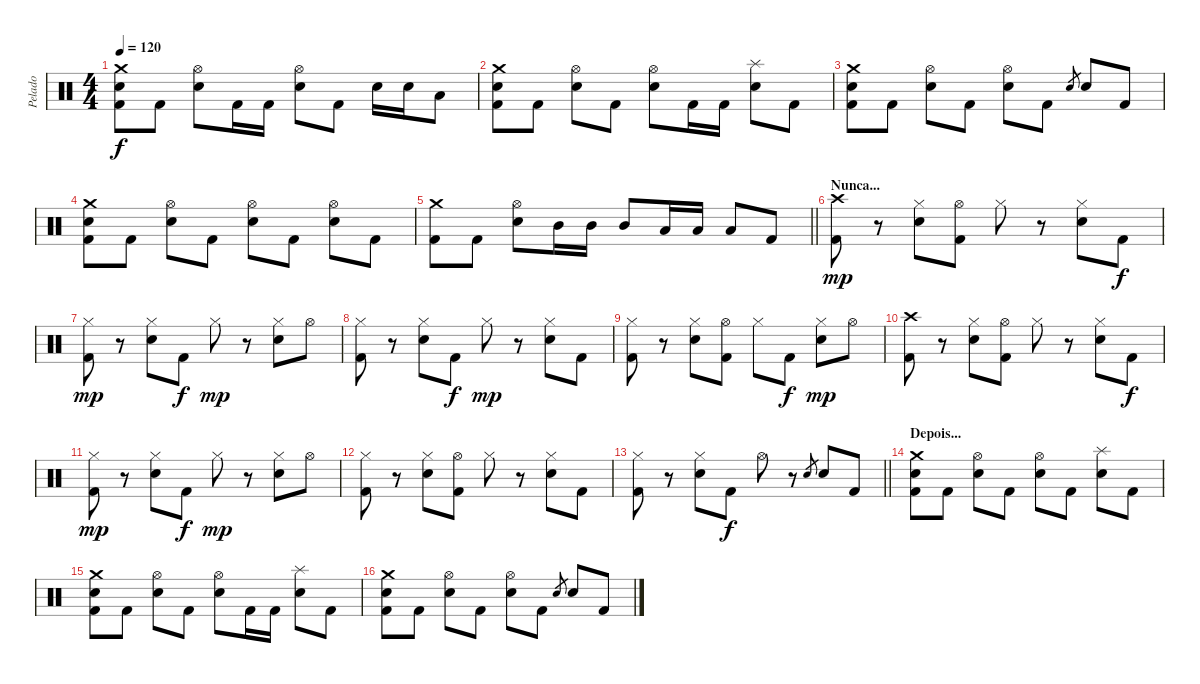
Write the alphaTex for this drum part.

\track ("Pelado" "Pelado") {instrument percussion}
\staff {score}
\articulation defaults
\ts (4 4)
\tempo 120
\clef neutral
\ks c
("Crash medium (hit)" "Electric Snare (hit)" "Kick (hit) 2").8{dy f} "Kick (hit) 2".8 ("Hi-Hat (open)" "Electric Snare (hit)").8 "Kick (hit) 2".16 "Kick (hit) 2".16 ("Hi-Hat (open)" "Electric Snare (hit)").8 "Kick (hit) 2".8 "Electric Snare (hit)".16 "Electric Snare (hit)".16 "Low Tom (hit)".8 |
("Crash medium (hit)" "Electric Snare (hit)" "Kick (hit) 2").8 "Kick (hit) 2".8 ("Hi-Hat (open)" "Electric Snare (hit)").8 "Kick (hit) 2".8 ("Hi-Hat (open)" "Electric Snare (hit)").8 "Kick (hit) 2".16 "Kick (hit) 2".16 ("Splash (hit)" "Electric Snare (hit)").8 "Kick (hit) 2".8 |
("Crash medium (hit)" "Electric Snare (hit)" "Kick (hit) 2").8 "Kick (hit) 2".8 ("Hi-Hat (open)" "Electric Snare (hit)").8 "Kick (hit) 2".8 ("Hi-Hat (open)" "Electric Snare (hit)").8 "Kick (hit) 2".8 "Electric Snare (hit)".8{gr} "Electric Snare (hit)".8 "Kick (hit) 2".8 |
("Crash medium (hit)" "Electric Snare (hit)" "Kick (hit) 2").8 "Kick (hit) 2".8 ("Hi-Hat (open)" "Electric Snare (hit)").8 "Kick (hit) 2".8 ("Hi-Hat (open)" "Electric Snare (hit)").8 "Kick (hit) 2".8 ("Hi-Hat (open)" "Electric Snare (hit)").8 "Kick (hit) 2".8 |
\barLineRight lightlight
("Crash medium (hit)" "Kick (hit) 2").8 "Kick (hit) 2".8 ("Hi-Hat (open)" "Electric Snare (hit)").8 "Mid Tom (hit)".16 "Mid Tom (hit)".16 "Mid Tom (hit)".8 "Low Tom (hit)".16 "Low Tom (hit)".16 "Low Tom (hit)".8 "Kick (hit) 2".8 |
\section ("" "Nunca...")
("Crash high (hit)" "Kick (hit) 2").8{dy mp} r.8 ("Hi-Hat (closed)" "Electric Snare (hit)").8 ("Hi-Hat (open)" "Kick (hit) 2").8 "Hi-Hat (closed)".8 r.8 ("Hi-Hat (closed)" "Electric Snare (hit)").8 "Kick (hit) 2".8{dy f} |
("Hi-Hat (closed)" "Kick (hit) 2").8{dy mp} r.8 ("Hi-Hat (closed)" "Electric Snare (hit)").8 "Kick (hit) 2".8{dy f} "Hi-Hat (closed)".8{dy mp} r.8 ("Hi-Hat (closed)" "Electric Snare (hit)").8 "Hi-Hat (open)".8 |
("Hi-Hat (closed)" "Kick (hit) 2").8 r.8 ("Hi-Hat (closed)" "Electric Snare (hit)").8 "Kick (hit) 2".8{dy f} "Hi-Hat (closed)".8{dy mp} r.8 ("Hi-Hat (closed)" "Electric Snare (hit)").8 "Kick (hit) 2".8 |
("Hi-Hat (closed)" "Kick (hit) 2").8 r.8 ("Hi-Hat (closed)" "Electric Snare (hit)").8 ("Hi-Hat (open)" "Kick (hit) 2").8 "Hi-Hat (closed)".8 "Kick (hit) 2".8{dy f} ("Hi-Hat (closed)" "Electric Snare (hit)").8{dy mp} "Hi-Hat (open)".8 |
("Crash high (hit)" "Kick (hit) 2").8 r.8 ("Hi-Hat (closed)" "Electric Snare (hit)").8 ("Hi-Hat (open)" "Kick (hit) 2").8 "Hi-Hat (closed)".8 r.8 ("Hi-Hat (closed)" "Electric Snare (hit)").8 "Kick (hit) 2".8{dy f} |
("Hi-Hat (closed)" "Kick (hit) 2").8{dy mp} r.8 ("Hi-Hat (closed)" "Electric Snare (hit)").8 "Kick (hit) 2".8{dy f} "Hi-Hat (closed)".8{dy mp} r.8 ("Hi-Hat (closed)" "Electric Snare (hit)").8 "Hi-Hat (open)".8 |
("Hi-Hat (closed)" "Kick (hit) 2").8 r.8 ("Hi-Hat (closed)" "Electric Snare (hit)").8 ("Hi-Hat (open)" "Kick (hit) 2").8 "Hi-Hat (closed)".8 r.8 ("Hi-Hat (closed)" "Electric Snare (hit)").8 "Kick (hit) 2".8 |
\barLineRight lightlight
("Hi-Hat (closed)" "Kick (hit) 2").8 r.8 ("Hi-Hat (closed)" "Electric Snare (hit)").8 "Kick (hit) 2".8{dy f} "Hi-Hat (open)".8 r.8 "Electric Snare (hit)".8{gr} "Electric Snare (hit)".8 "Kick (hit) 2".8 |
\section ("" "Depois...")
("Crash medium (hit)" "Electric Snare (hit)" "Kick (hit) 2").8 "Kick (hit) 2".8 ("Hi-Hat (open)" "Electric Snare (hit)").8 "Kick (hit) 2".8 ("Hi-Hat (open)" "Electric Snare (hit)").8 "Kick (hit) 2".8 ("Splash (hit)" "Electric Snare (hit)").8 "Kick (hit) 2".8 |
("Crash medium (hit)" "Electric Snare (hit)" "Kick (hit) 2").8 "Kick (hit) 2".8 ("Hi-Hat (open)" "Electric Snare (hit)").8 "Kick (hit) 2".8 ("Hi-Hat (open)" "Electric Snare (hit)").8 "Kick (hit) 2".16 "Kick (hit) 2".16 ("Splash (hit)" "Electric Snare (hit)").8 "Kick (hit) 2".8 |
("Crash medium (hit)" "Electric Snare (hit)" "Kick (hit) 2").8 "Kick (hit) 2".8 ("Hi-Hat (open)" "Electric Snare (hit)").8 "Kick (hit) 2".8 ("Hi-Hat (open)" "Electric Snare (hit)").8 "Kick (hit) 2".8 "Electric Snare (hit)".8{gr} "Electric Snare (hit)".8 "Kick (hit) 2".8
